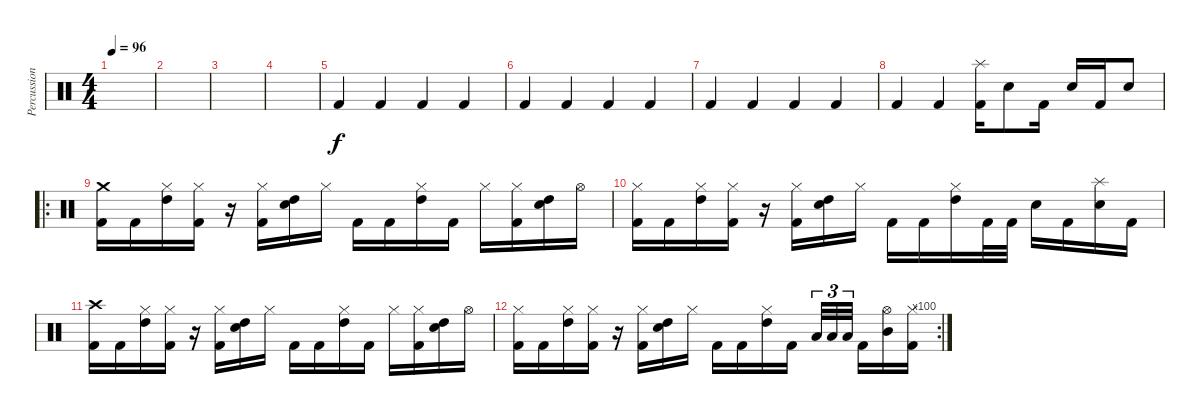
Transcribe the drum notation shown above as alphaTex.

\track ("Percussion" "Percussion") {instrument percussion}
\staff {score}
\articulation defaults
\ts (4 4)
\tempo 96
\clef neutral
\ks c
|
|
|
|
"Kick (hit) 2".4 "Kick (hit) 2".4 "Kick (hit) 2".4 "Kick (hit) 2".4 |
"Kick (hit) 2".4 "Kick (hit) 2".4 "Kick (hit) 2".4 "Kick (hit) 2".4 |
"Kick (hit) 2".4 "Kick (hit) 2".4 "Kick (hit) 2".4 "Kick (hit) 2".4 |
"Kick (hit) 2".4 "Kick (hit) 2".4 ("Splash (hit)" "Kick (hit) 2").16 "Electric Snare (hit)".8 "Kick (hit) 2".16 "Electric Snare (hit)".16 "Kick (hit) 2".16 "Electric Snare (hit)".8 |
\ro
("Crash medium (hit)" "Kick (hit) 2").16 "Kick (hit) 2".16 ("Hi-Hat (closed)" "High Tom (hit)").16 ("Hi-Hat (closed)" "Kick (hit) 2").16 r.16 ("Hi-Hat (closed)" "Kick (hit) 2").16 ("High Tom (hit)" "Electric Snare (hit)").16 "Hi-Hat (closed)".16 "Kick (hit) 2".16 "Kick (hit) 2".16 ("Hi-Hat (closed)" "High Tom (hit)").16 "Kick (hit) 2".16 "Hi-Hat (closed)".16 ("Hi-Hat (closed)" "Kick (hit) 2").16 ("High Tom (hit)" "Electric Snare (hit)").16 "Hi-Hat (open)".16 |
("Hi-Hat (closed)" "Kick (hit) 2").16 "Kick (hit) 2".16 ("Hi-Hat (closed)" "High Tom (hit)").16 ("Hi-Hat (closed)" "Kick (hit) 2").16 r.16 ("Hi-Hat (closed)" "Kick (hit) 2").16 ("High Tom (hit)" "Electric Snare (hit)").16 "Hi-Hat (closed)".16 "Kick (hit) 2".16 "Kick (hit) 2".16 ("Hi-Hat (closed)" "High Tom (hit)").16 "Kick (hit) 2".32 "Kick (hit) 2".32 "Electric Snare (hit)".16 "Kick (hit) 2".16 ("Splash (hit)" "Electric Snare (hit)").16 "Kick (hit) 2".16 |
("Crash high (hit)" "Kick (hit) 2").16 "Kick (hit) 2".16 ("Hi-Hat (closed)" "High Tom (hit)").16 ("Hi-Hat (closed)" "Kick (hit) 2").16 r.16 ("Hi-Hat (closed)" "Kick (hit) 2").16 ("High Tom (hit)" "Electric Snare (hit)").16 "Hi-Hat (closed)".16 "Kick (hit) 2".16 "Kick (hit) 2".16 ("Hi-Hat (closed)" "High Tom (hit)").16 "Kick (hit) 2".16 "Hi-Hat (closed)".16 ("Hi-Hat (closed)" "Kick (hit) 2").16 ("High Tom (hit)" "Electric Snare (hit)").16 "Hi-Hat (open)".16 |
\rc 100
("Hi-Hat (closed)" "Kick (hit) 2").16 "Kick (hit) 2".16 ("Hi-Hat (closed)" "High Tom (hit)").16 ("Hi-Hat (closed)" "Kick (hit) 2").16 r.16 ("Hi-Hat (closed)" "Kick (hit) 2").16 ("High Tom (hit)" "Electric Snare (hit)").16 "Hi-Hat (closed)".16 "Kick (hit) 2".16 "Kick (hit) 2".16 ("Hi-Hat (closed)" "High Tom (hit)").16 "Kick (hit) 2".16 "Low Tom (hit)".32{tu (3 2)} "Low Tom (hit)".32{tu (3 2)} "Low Tom (hit)".32{tu (3 2)} "Kick (hit) 2".16 ("Hi-Hat (open)" "Mid Tom (hit)").16 ("Hi-Hat (closed)" "Kick (hit) 2").16
